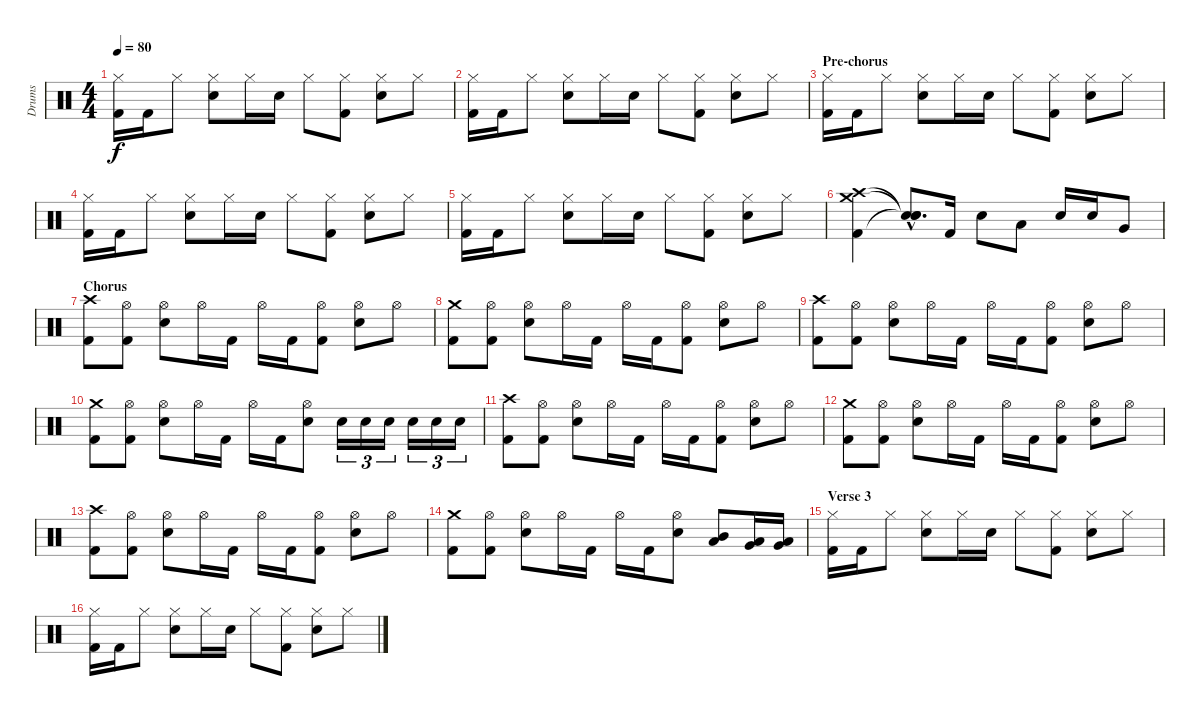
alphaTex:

\track ("Drums" "Drums") {instrument percussion}
\staff {score}
\articulation defaults
\ts (4 4)
\tempo 80
\clef neutral
\ks c
("Hi-Hat (closed)" "Kick (hit) 2").16{dy f} "Kick (hit) 2".16 "Hi-Hat (closed)".8 ("Hi-Hat (closed)" "Electric Snare (hit)").8 "Hi-Hat (closed)".16 "Electric Snare (hit)".16 "Hi-Hat (closed)".8 ("Hi-Hat (closed)" "Kick (hit) 2").8 ("Hi-Hat (closed)" "Electric Snare (hit)").8 "Hi-Hat (closed)".8 |
("Hi-Hat (closed)" "Kick (hit) 2").16 "Kick (hit) 2".16 "Hi-Hat (closed)".8 ("Hi-Hat (closed)" "Electric Snare (hit)").8 "Hi-Hat (closed)".16 "Electric Snare (hit)".16 "Hi-Hat (closed)".8 ("Hi-Hat (closed)" "Kick (hit) 2").8 ("Hi-Hat (closed)" "Electric Snare (hit)").8 "Hi-Hat (closed)".8 |
\section ("" "Pre-chorus")
("Hi-Hat (closed)" "Kick (hit) 2").16 "Kick (hit) 2".16 "Hi-Hat (closed)".8 ("Hi-Hat (closed)" "Electric Snare (hit)").8 "Hi-Hat (closed)".16 "Electric Snare (hit)".16 "Hi-Hat (closed)".8 ("Hi-Hat (closed)" "Kick (hit) 2").8 ("Hi-Hat (closed)" "Electric Snare (hit)").8 "Hi-Hat (closed)".8 |
("Hi-Hat (closed)" "Kick (hit) 2").16 "Kick (hit) 2".16 "Hi-Hat (closed)".8 ("Hi-Hat (closed)" "Electric Snare (hit)").8 "Hi-Hat (closed)".16 "Electric Snare (hit)".16 "Hi-Hat (closed)".8 ("Hi-Hat (closed)" "Kick (hit) 2").8 ("Hi-Hat (closed)" "Electric Snare (hit)").8 "Hi-Hat (closed)".8 |
("Hi-Hat (closed)" "Kick (hit) 2").16 "Kick (hit) 2".16 "Hi-Hat (closed)".8 ("Hi-Hat (closed)" "Electric Snare (hit)").8 "Hi-Hat (closed)".16 "Electric Snare (hit)".16 "Hi-Hat (closed)".8 ("Hi-Hat (closed)" "Kick (hit) 2").8 ("Hi-Hat (closed)" "Electric Snare (hit)").8 "Hi-Hat (closed)".8 |
("Crash medium (hit)" "Crash high (hit)" "Kick (hit) 2").4 ("Snare (hit)"{hac t} "Snare (hit)"{hac t} "Snare (hit)"{hac t}).8{d} "Kick (hit) 2".16 "Electric Snare (hit)".8 "Low Tom (hit)".8 "Electric Snare (hit)".16 "Electric Snare (hit)".16 "Very Low Tom (hit)".8 |
\section ("" "Chorus")
("Crash high (hit)" "Kick (hit) 2").8 ("Hi-Hat (open)" "Kick (hit) 2").8 ("Hi-Hat (open)" "Electric Snare (hit)").8 "Hi-Hat (open)".16 "Kick (hit) 2".16 "Hi-Hat (open)".16 "Kick (hit) 2".16 ("Hi-Hat (open)" "Kick (hit) 2").8 ("Hi-Hat (open)" "Electric Snare (hit)").8 "Hi-Hat (open)".8 |
("Crash medium (hit)" "Kick (hit) 2").8 ("Hi-Hat (open)" "Kick (hit) 2").8 ("Hi-Hat (open)" "Electric Snare (hit)").8 "Hi-Hat (open)".16 "Kick (hit) 2".16 "Hi-Hat (open)".16 "Kick (hit) 2".16 ("Hi-Hat (open)" "Kick (hit) 2").8 ("Hi-Hat (open)" "Electric Snare (hit)").8 "Hi-Hat (open)".8 |
("Crash high (hit)" "Kick (hit) 2").8 ("Hi-Hat (open)" "Kick (hit) 2").8 ("Hi-Hat (open)" "Electric Snare (hit)").8 "Hi-Hat (open)".16 "Kick (hit) 2".16 "Hi-Hat (open)".16 "Kick (hit) 2".16 ("Hi-Hat (open)" "Kick (hit) 2").8 ("Hi-Hat (open)" "Electric Snare (hit)").8 "Hi-Hat (open)".8 |
("Crash medium (hit)" "Kick (hit) 2").8 ("Hi-Hat (open)" "Kick (hit) 2").8 ("Hi-Hat (open)" "Electric Snare (hit)").8 "Hi-Hat (open)".16 "Kick (hit) 2".16 "Hi-Hat (open)".16 "Kick (hit) 2".16 ("Hi-Hat (open)" "Electric Snare (hit)").8 "Electric Snare (hit)".16{tu (3 2)} "Electric Snare (hit)".16{tu (3 2)} "Electric Snare (hit)".16{tu (3 2)} "Electric Snare (hit)".16{tu (3 2)} "Electric Snare (hit)".16{tu (3 2)} "Electric Snare (hit)".16{tu (3 2)} |
("Crash high (hit)" "Kick (hit) 2").8 ("Hi-Hat (open)" "Kick (hit) 2").8 ("Hi-Hat (open)" "Electric Snare (hit)").8 "Hi-Hat (open)".16 "Kick (hit) 2".16 "Hi-Hat (open)".16 "Kick (hit) 2".16 ("Hi-Hat (open)" "Kick (hit) 2").8 ("Hi-Hat (open)" "Electric Snare (hit)").8 "Hi-Hat (open)".8 |
("Crash medium (hit)" "Kick (hit) 2").8 ("Hi-Hat (open)" "Kick (hit) 2").8 ("Hi-Hat (open)" "Electric Snare (hit)").8 "Hi-Hat (open)".16 "Kick (hit) 2".16 "Hi-Hat (open)".16 "Kick (hit) 2".16 ("Hi-Hat (open)" "Kick (hit) 2").8 ("Hi-Hat (open)" "Electric Snare (hit)").8 "Hi-Hat (open)".8 |
("Crash high (hit)" "Kick (hit) 2").8 ("Hi-Hat (open)" "Kick (hit) 2").8 ("Hi-Hat (open)" "Electric Snare (hit)").8 "Hi-Hat (open)".16 "Kick (hit) 2".16 "Hi-Hat (open)".16 "Kick (hit) 2".16 ("Hi-Hat (open)" "Kick (hit) 2").8 ("Hi-Hat (open)" "Electric Snare (hit)").8 "Hi-Hat (open)".8 |
("Crash medium (hit)" "Kick (hit) 2").8 ("Hi-Hat (open)" "Kick (hit) 2").8 ("Hi-Hat (open)" "Electric Snare (hit)").8 "Hi-Hat (open)".16 "Kick (hit) 2".16 "Hi-Hat (open)".16 "Kick (hit) 2".16 ("Hi-Hat (open)" "Electric Snare (hit)").8 ("Mid Tom (hit)" "Low Tom (hit)").8 ("Very Low Tom (hit)" "Low Floor Tom (hit)").16 ("Very Low Tom (hit)" "Low Floor Tom (hit)").16 |
\section ("" "Verse 3")
("Hi-Hat (closed)" "Kick (hit) 2").16 "Kick (hit) 2".16 "Hi-Hat (closed)".8 ("Hi-Hat (closed)" "Electric Snare (hit)").8 "Hi-Hat (closed)".16 "Electric Snare (hit)".16 "Hi-Hat (closed)".8 ("Hi-Hat (closed)" "Kick (hit) 2").8 ("Hi-Hat (closed)" "Electric Snare (hit)").8 "Hi-Hat (closed)".8 |
("Hi-Hat (closed)" "Kick (hit) 2").16 "Kick (hit) 2".16 "Hi-Hat (closed)".8 ("Hi-Hat (closed)" "Electric Snare (hit)").8 "Hi-Hat (closed)".16 "Electric Snare (hit)".16 "Hi-Hat (closed)".8 ("Hi-Hat (closed)" "Kick (hit) 2").8 ("Hi-Hat (closed)" "Electric Snare (hit)").8 "Hi-Hat (closed)".8
